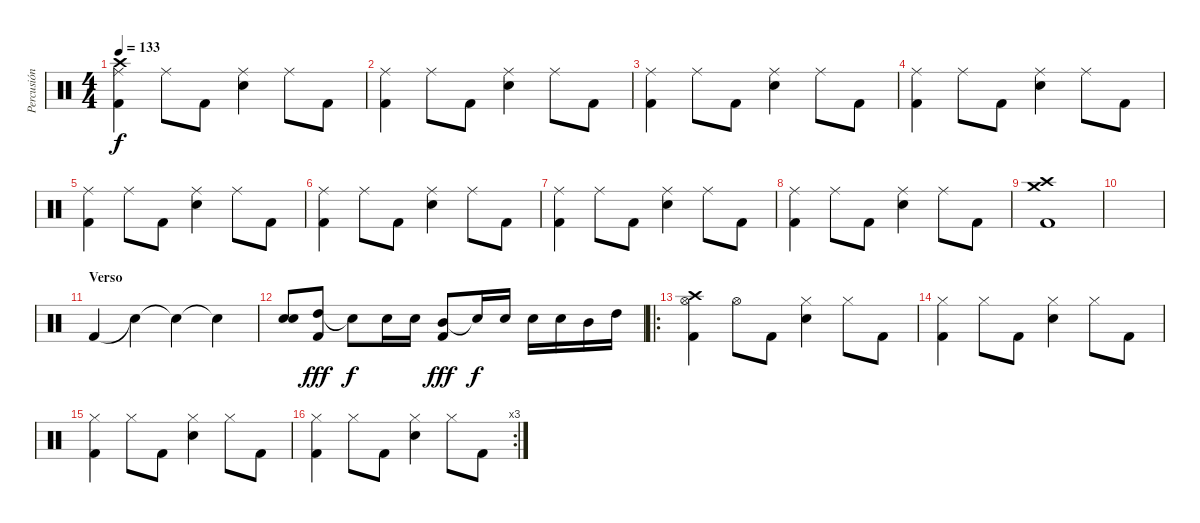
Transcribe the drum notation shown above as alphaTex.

\track ("Percusión" "Percusión") {instrument percussion}
\staff {score}
\articulation defaults
\ts (4 4)
\tempo 133
\clef neutral
\ks c
("Crash high (hit)" "Ride (middle)" "Kick (hit) 2").4{dy f} "Ride (middle)".8 "Kick (hit) 2".8 ("Electric Snare (hit)" "Ride (middle)").4 "Ride (middle)".8 "Kick (hit) 2".8 |
("Ride (middle)" "Kick (hit) 2").4 "Ride (middle)".8 "Kick (hit) 2".8 ("Electric Snare (hit)" "Ride (middle)").4 "Ride (middle)".8 "Kick (hit) 2".8 |
("Ride (middle)" "Kick (hit) 2").4 "Ride (middle)".8 "Kick (hit) 2".8 ("Electric Snare (hit)" "Ride (middle)").4 "Ride (middle)".8 "Kick (hit) 2".8 |
("Ride (middle)" "Kick (hit) 2").4 "Ride (middle)".8 "Kick (hit) 2".8 ("Electric Snare (hit)" "Ride (middle)").4 "Ride (middle)".8 "Kick (hit) 2".8 |
("Ride (middle)" "Kick (hit) 2").4 "Ride (middle)".8 "Kick (hit) 2".8 ("Electric Snare (hit)" "Ride (middle)").4 "Ride (middle)".8 "Kick (hit) 2".8 |
("Ride (middle)" "Kick (hit) 2").4 "Ride (middle)".8 "Kick (hit) 2".8 ("Electric Snare (hit)" "Ride (middle)").4 "Ride (middle)".8 "Kick (hit) 2".8 |
("Ride (middle)" "Kick (hit) 2").4 "Ride (middle)".8 "Kick (hit) 2".8 ("Electric Snare (hit)" "Ride (middle)").4 "Ride (middle)".8 "Kick (hit) 2".8 |
("Ride (middle)" "Kick (hit) 2").4 "Ride (middle)".8 "Kick (hit) 2".8 ("Electric Snare (hit)" "Ride (middle)").4 "Ride (middle)".8 "Kick (hit) 2".8 |
("Crash medium (hit)" "Crash high (hit)" "Kick (hit) 2").1 |
|
\section ("" "Verso")
"Kick (hit) 2".4 "Snare (hit)"{t}.4 "Snare (hit)"{t}.4 "Snare (hit)"{t}.4 |
("Snare (hit) 2" "Electric Snare (hit)").8 ("High Tom (hit)" "Kick (hit) 2").8{dy fff} "Snare (hit)"{t}.8{dy f} "Electric Snare (hit)".16 "Electric Snare (hit)".16 ("Mid Tom (hit)" "Kick (hit) 2").8{dy fff} "Snare (hit)"{t}.16{dy f} "Electric Snare (hit)".16 "Electric Snare (hit)".16 "Electric Snare (hit)".16 "Mid Tom (hit)".16 "High Tom (hit)".16 |
\ro
("Crash high (hit)" "Hi-Hat (open)" "Kick (hit) 2").4 "Hi-Hat (open)".8 "Kick (hit) 2".8 ("Electric Snare (hit)" "Hi-Hat (closed)").4 "Hi-Hat (closed)".8 "Kick (hit) 2".8 |
("Hi-Hat (closed)" "Kick (hit) 2").4 "Hi-Hat (closed)".8 "Kick (hit) 2".8 ("Electric Snare (hit)" "Hi-Hat (closed)").4 "Hi-Hat (closed)".8 "Kick (hit) 2".8 |
("Hi-Hat (closed)" "Kick (hit) 2").4 "Hi-Hat (closed)".8 "Kick (hit) 2".8 ("Electric Snare (hit)" "Hi-Hat (closed)").4 "Hi-Hat (closed)".8 "Kick (hit) 2".8 |
\rc 3
("Hi-Hat (closed)" "Kick (hit) 2").4 "Hi-Hat (closed)".8 "Kick (hit) 2".8 ("Electric Snare (hit)" "Hi-Hat (closed)").4 "Hi-Hat (closed)".8 "Kick (hit) 2".8
